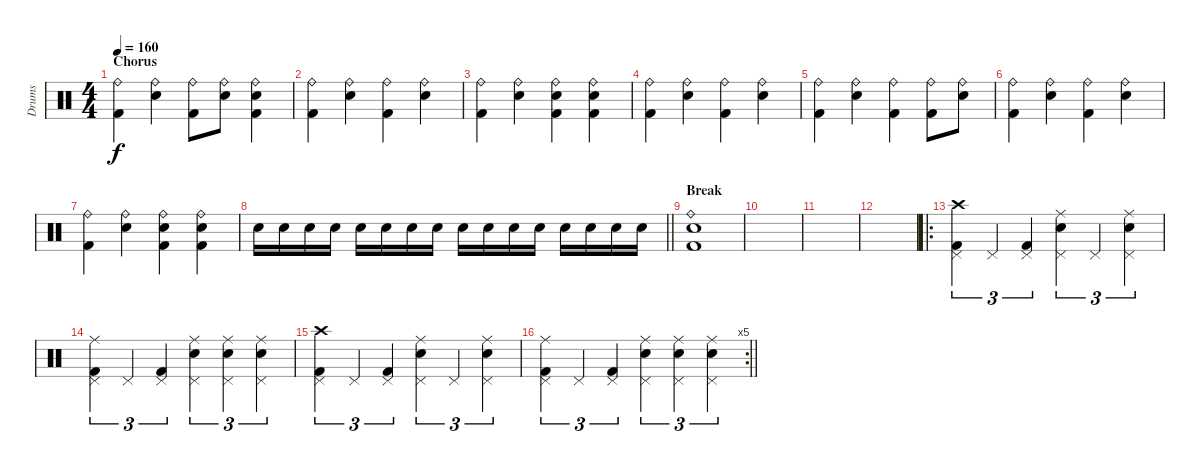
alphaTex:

\track ("Drums" "Drums") {instrument percussion}
\staff {score}
\articulation defaults
\ts (4 4)
\section ("" "Chorus")
\tempo 160
\clef neutral
\ks c
("Ride (bell)" "Kick (hit) 2").4{dy f} ("Ride (bell)" "Snare (hit) 2").4 ("Ride (bell)" "Kick (hit) 2").8 ("Ride (bell)" "Snare (hit) 2").8 ("Ride (bell)" "Snare (hit) 2" "Kick (hit) 2").4 |
("Ride (bell)" "Kick (hit) 2").4 ("Ride (bell)" "Snare (hit) 2").4 ("Ride (bell)" "Kick (hit) 2").4 ("Ride (bell)" "Snare (hit) 2").4 |
("Ride (bell)" "Kick (hit) 2").4 ("Ride (bell)" "Snare (hit) 2").4 ("Ride (bell)" "Snare (hit) 2" "Kick (hit) 2").4 ("Ride (bell)" "Snare (hit) 2" "Kick (hit) 2").4 |
("Ride (bell)" "Kick (hit) 2").4 ("Ride (bell)" "Snare (hit) 2").4 ("Ride (bell)" "Kick (hit) 2").4 ("Ride (bell)" "Snare (hit) 2").4 |
("Ride (bell)" "Kick (hit) 2").4 ("Ride (bell)" "Snare (hit) 2").4 ("Ride (bell)" "Kick (hit) 2").4 ("Ride (bell)" "Kick (hit) 2").8 ("Ride (bell)" "Snare (hit) 2").8 |
("Ride (bell)" "Kick (hit) 2").4 ("Ride (bell)" "Snare (hit) 2").4 ("Ride (bell)" "Kick (hit) 2").4 ("Ride (bell)" "Snare (hit) 2").4 |
("Ride (bell)" "Kick (hit) 2").4 ("Ride (bell)" "Snare (hit) 2").4 ("Ride (bell)" "Snare (hit) 2" "Kick (hit) 2").4 ("Ride (bell)" "Snare (hit) 2" "Kick (hit) 2").4 |
\barLineRight lightlight "Snare (hit) 2".16 "Snare (hit) 2".16 "Snare (hit) 2".16 "Snare (hit) 2".16 "Snare (hit) 2".16 "Snare (hit) 2".16 "Snare (hit) 2".16 "Snare (hit) 2".16 "Snare (hit) 2".16 "Snare (hit) 2".16 "Snare (hit) 2".16 "Snare (hit) 2".16 "Snare (hit) 2".16 "Snare (hit) 2".16 "Snare (hit) 2".16 "Snare (hit) 2".16
|
\section ("" "Break")
("Ride (bell)" "Snare (hit) 2" "Kick (hit) 2").1 |
|
|
|
\ro
("Kick (hit) 2" "Pedal Hi-Hat (hit)" "Crash high (hit)").4{tu (3 2)} "Pedal Hi-Hat (hit)".4{tu (3 2)} ("Kick (hit) 2" "Pedal Hi-Hat (hit)").4{tu (3 2)} ("Snare (hit) 2" "Pedal Hi-Hat (hit)" "Ride (middle)").4{tu (3 2)} "Pedal Hi-Hat (hit)".4{tu (3 2)} ("Snare (hit) 2" "Pedal Hi-Hat (hit)" "Ride (middle)").4{tu (3 2)} |
("Kick (hit) 2" "Pedal Hi-Hat (hit)" "Ride (middle)").4{tu (3 2)} "Pedal Hi-Hat (hit)".4{tu (3 2)} ("Kick (hit) 2" "Pedal Hi-Hat (hit)").4{tu (3 2)} ("Snare (hit) 2" "Pedal Hi-Hat (hit)" "Ride (middle)").4{tu (3 2)} ("Snare (hit) 2" "Pedal Hi-Hat (hit)" "Ride (middle)").4{tu (3 2)} ("Snare (hit) 2" "Pedal Hi-Hat (hit)" "Ride (middle)").4{tu (3 2)} |
("Kick (hit) 2" "Pedal Hi-Hat (hit)" "Crash high (hit)").4{tu (3 2)} "Pedal Hi-Hat (hit)".4{tu (3 2)} ("Kick (hit) 2" "Pedal Hi-Hat (hit)").4{tu (3 2)} ("Snare (hit) 2" "Pedal Hi-Hat (hit)" "Ride (middle)").4{tu (3 2)} "Pedal Hi-Hat (hit)".4{tu (3 2)} ("Snare (hit) 2" "Pedal Hi-Hat (hit)" "Ride (middle)").4{tu (3 2)} |
\rc 5
\barLineRight lightlight
("Kick (hit) 2" "Pedal Hi-Hat (hit)" "Ride (middle)").4{tu (3 2)} "Pedal Hi-Hat (hit)".4{tu (3 2)} ("Kick (hit) 2" "Pedal Hi-Hat (hit)").4{tu (3 2)} ("Snare (hit) 2" "Pedal Hi-Hat (hit)" "Ride (middle)").4{tu (3 2)} ("Snare (hit) 2" "Pedal Hi-Hat (hit)" "Ride (middle)").4{tu (3 2)} ("Snare (hit) 2" "Pedal Hi-Hat (hit)" "Ride (middle)").4{tu (3 2)}
